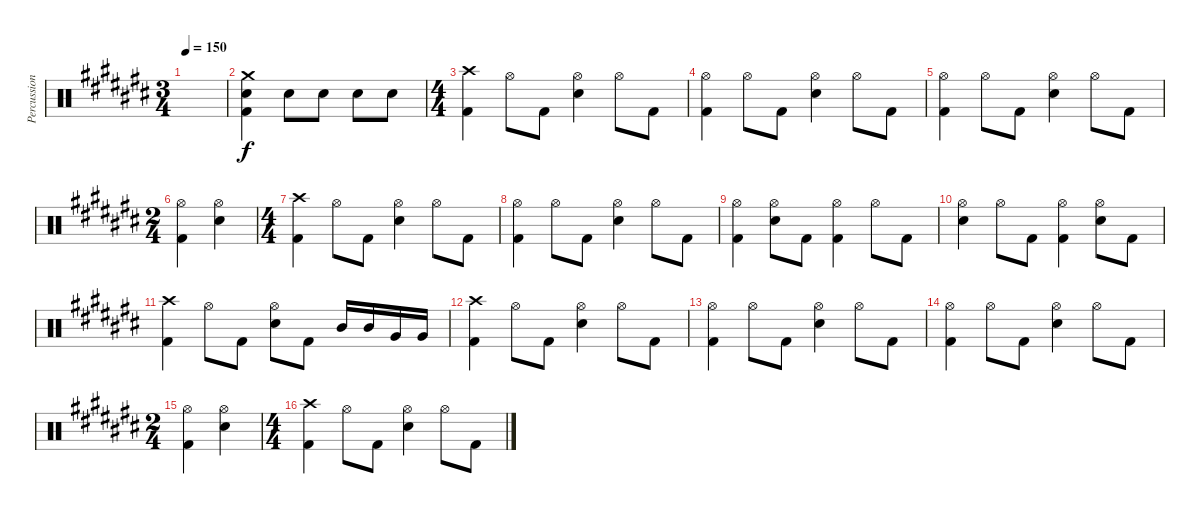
\track ("Percussion" "Percussion") {instrument percussion}
\staff {score}
\articulation defaults
\ts (3 4)
\tempo 150
\clef neutral
\ks c#
|
("Crash medium (hit)" "Electric Snare (hit)" "Kick (hit) 2").4 "Electric Snare (hit)".8 "Electric Snare (hit)".8 "Electric Snare (hit)".8 "Electric Snare (hit)".8 |
\ts (4 4)
("Crash high (hit)" "Kick (hit) 2").4 "Hi-Hat (open)".8 "Kick (hit) 2".8 ("Hi-Hat (open)" "Electric Snare (hit)").4 "Hi-Hat (open)".8 "Kick (hit) 2".8 |
("Hi-Hat (open)" "Kick (hit) 2").4 "Hi-Hat (open)".8 "Kick (hit) 2".8 ("Hi-Hat (open)" "Electric Snare (hit)").4 "Hi-Hat (open)".8 "Kick (hit) 2".8 |
("Hi-Hat (open)" "Kick (hit) 2").4 "Hi-Hat (open)".8 "Kick (hit) 2".8 ("Hi-Hat (open)" "Electric Snare (hit)").4 "Hi-Hat (open)".8 "Kick (hit) 2".8 |
\ts (2 4)
("Hi-Hat (open)" "Kick (hit) 2").4 ("Hi-Hat (open)" "Electric Snare (hit)").4 |
\ts (4 4)
("Crash high (hit)" "Kick (hit) 2").4 "Hi-Hat (open)".8 "Kick (hit) 2".8 ("Hi-Hat (open)" "Electric Snare (hit)").4 "Hi-Hat (open)".8 "Kick (hit) 2".8 |
("Hi-Hat (open)" "Kick (hit) 2").4 "Hi-Hat (open)".8 "Kick (hit) 2".8 ("Hi-Hat (open)" "Electric Snare (hit)").4 "Hi-Hat (open)".8 "Kick (hit) 2".8 |
("Hi-Hat (open)" "Kick (hit) 2").4 ("Hi-Hat (open)" "Electric Snare (hit)").8 "Kick (hit) 2".8 ("Hi-Hat (open)" "Kick (hit) 2").4 "Hi-Hat (open)".8 "Kick (hit) 2".8 |
("Hi-Hat (open)" "Electric Snare (hit)").4 "Hi-Hat (open)".8 "Kick (hit) 2".8 ("Hi-Hat (open)" "Kick (hit) 2").4 ("Hi-Hat (open)" "Electric Snare (hit)").8 "Kick (hit) 2".8 |
("Crash high (hit)" "Kick (hit) 2").4 "Hi-Hat (open)".8 "Kick (hit) 2".8 ("Hi-Hat (open)" "Electric Snare (hit)").8 "Kick (hit) 2".8 "Mid Tom (hit)".16 "Mid Tom (hit)".16 "Very Low Tom (hit)".16 "Very Low Tom (hit)".16 |
("Crash high (hit)" "Kick (hit) 2").4 "Hi-Hat (open)".8 "Kick (hit) 2".8 ("Hi-Hat (open)" "Electric Snare (hit)").4 "Hi-Hat (open)".8 "Kick (hit) 2".8 |
("Hi-Hat (open)" "Kick (hit) 2").4 "Hi-Hat (open)".8 "Kick (hit) 2".8 ("Hi-Hat (open)" "Electric Snare (hit)").4 "Hi-Hat (open)".8 "Kick (hit) 2".8 |
("Hi-Hat (open)" "Kick (hit) 2").4 "Hi-Hat (open)".8 "Kick (hit) 2".8 ("Hi-Hat (open)" "Electric Snare (hit)").4 "Hi-Hat (open)".8 "Kick (hit) 2".8 |
\ts (2 4)
("Hi-Hat (open)" "Kick (hit) 2").4 ("Hi-Hat (open)" "Electric Snare (hit)").4 |
\ts (4 4)
("Crash high (hit)" "Kick (hit) 2").4 "Hi-Hat (open)".8 "Kick (hit) 2".8 ("Hi-Hat (open)" "Electric Snare (hit)").4 "Hi-Hat (open)".8 "Kick (hit) 2".8
